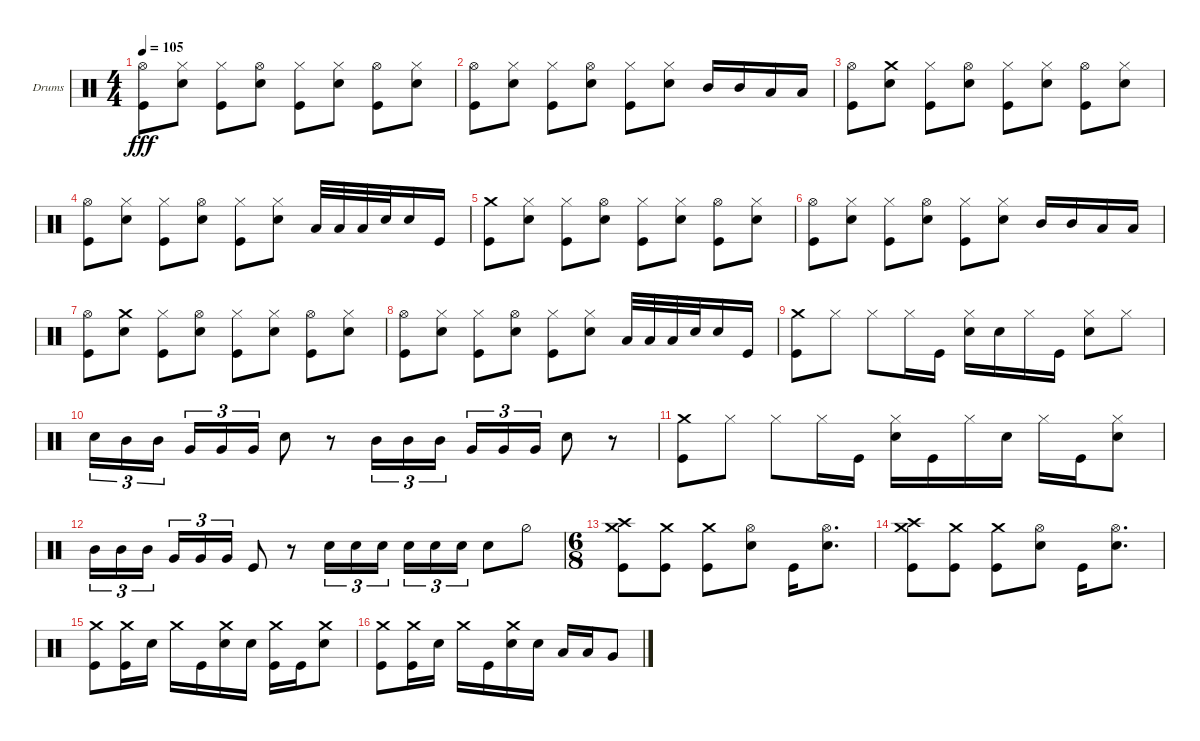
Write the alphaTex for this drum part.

\bracketExtendMode groupsimilarinstruments
\firstSystemTrackNameOrientation horizontal
\otherSystemsTrackNameOrientation horizontal
\track ("Andrew Forsman" "Drums") {instrument percussion}
\staff {score}
\articulation defaults
\ts (4 4)
\beaming (8 2 2 2 2)
\tempo 105
\clef neutral
\scale
0.474178
\ks c
("Kick (hit)" "Hi-Hat (open)").8{dy fff} ("Snare (hit) 2" "Hi-Hat (closed)").8 ("Kick (hit)" "Hi-Hat (closed)").8 ("Snare (hit) 2" "Hi-Hat (open)").8 ("Kick (hit)" "Hi-Hat (closed)").8 ("Snare (hit) 2" "Hi-Hat (closed)").8 ("Kick (hit)" "Hi-Hat (open)").8 ("Snare (hit) 2" "Hi-Hat (closed)").8 |
\scale
0.333333 ("Kick (hit)" "Hi-Hat (open)").8 ("Snare (hit) 2" "Hi-Hat (closed)").8 ("Kick (hit)" "Hi-Hat (closed)").8 ("Snare (hit) 2" "Hi-Hat (open)").8 ("Kick (hit)" "Hi-Hat (closed)").8 ("Snare (hit) 2" "Hi-Hat (closed)").8 "Mid Tom (hit)".16 "Mid Tom (hit)".16 "Low Tom (hit)".16 "Low Tom (hit)".16 |
\scale
0.333333 ("Kick (hit)" "Hi-Hat (open)").8 ("Snare (hit) 2" "Crash medium (hit)").8 ("Kick (hit)" "Hi-Hat (closed)").8 ("Snare (hit) 2" "Hi-Hat (open)").8 ("Kick (hit)" "Hi-Hat (closed)").8 ("Snare (hit) 2" "Hi-Hat (closed)").8 ("Kick (hit)" "Hi-Hat (open)").8 ("Snare (hit) 2" "Hi-Hat (closed)").8 |
\scale
0.333333 ("Kick (hit)" "Hi-Hat (open)").8 ("Snare (hit) 2" "Hi-Hat (closed)").8 ("Kick (hit)" "Hi-Hat (closed)").8 ("Snare (hit) 2" "Hi-Hat (open)").8 ("Kick (hit)" "Hi-Hat (closed)").8 ("Snare (hit) 2" "Hi-Hat (closed)").8 "Low Tom (hit)".32 "Low Tom (hit)".32 "Low Tom (hit)".32 "Snare (hit) 2".32 "Snare (hit) 2".16 "Kick (hit)".16 |
\scale
0.333333 ("Kick (hit)" "Crash medium (hit)").8 ("Snare (hit) 2" "Hi-Hat (closed)").8 ("Kick (hit)" "Hi-Hat (closed)").8 ("Snare (hit) 2" "Hi-Hat (open)").8 ("Kick (hit)" "Hi-Hat (closed)").8 ("Snare (hit) 2" "Hi-Hat (closed)").8 ("Kick (hit)" "Hi-Hat (open)").8 ("Snare (hit) 2" "Hi-Hat (closed)").8 |
\scale
0.333333 ("Kick (hit)" "Hi-Hat (open)").8 ("Snare (hit) 2" "Hi-Hat (closed)").8 ("Kick (hit)" "Hi-Hat (closed)").8 ("Snare (hit) 2" "Hi-Hat (open)").8 ("Kick (hit)" "Hi-Hat (closed)").8 ("Snare (hit) 2" "Hi-Hat (closed)").8 "Mid Tom (hit)".16 "Mid Tom (hit)".16 "Low Tom (hit)".16 "Low Tom (hit)".16 |
\scale
0.333333 ("Kick (hit)" "Hi-Hat (open)").8 ("Snare (hit) 2" "Crash medium (hit)").8 ("Kick (hit)" "Hi-Hat (closed)").8 ("Snare (hit) 2" "Hi-Hat (open)").8 ("Kick (hit)" "Hi-Hat (closed)").8 ("Snare (hit) 2" "Hi-Hat (closed)").8 ("Kick (hit)" "Hi-Hat (open)").8 ("Snare (hit) 2" "Hi-Hat (closed)").8 |
\scale
0.333333 ("Kick (hit)" "Hi-Hat (open)").8 ("Snare (hit) 2" "Hi-Hat (closed)").8 ("Kick (hit)" "Hi-Hat (closed)").8 ("Snare (hit) 2" "Hi-Hat (open)").8 ("Kick (hit)" "Hi-Hat (closed)").8 ("Snare (hit) 2" "Hi-Hat (closed)").8 "Low Tom (hit)".32 "Low Tom (hit)".32 "Low Tom (hit)".32 "Snare (hit) 2".32 "Snare (hit) 2".16 "Kick (hit)".16 |
\scale
0.333333 ("Kick (hit)" "Crash medium (hit)").8 "Hi-Hat (closed)".8 "Hi-Hat (closed)".8 "Hi-Hat (closed)".16 "Kick (hit)".16 ("Snare (hit) 2" "Hi-Hat (closed)").16 "Snare (hit) 2".16 "Hi-Hat (closed)".16 "Kick (hit)".16 ("Snare (hit) 2" "Hi-Hat (closed)").8 "Hi-Hat (closed)".8 |
\scale
0.333333 "Snare (hit) 2".16{tu (3 2)} "Mid Tom (hit)".16{tu (3 2)} "Mid Tom (hit)".16{tu (3 2)} "Very Low Tom (hit)".16{tu (3 2)} "Very Low Tom (hit)".16{tu (3 2)} "Very Low Tom (hit)".16{tu (3 2)} "Snare (hit) 2".8 r.8 "Mid Tom (hit)".16{tu (3 2)} "Mid Tom (hit)".16{tu (3 2)} "Mid Tom (hit)".16{tu (3 2)} "Very Low Tom (hit)".16{tu (3 2)} "Very Low Tom (hit)".16{tu (3 2)} "Very Low Tom (hit)".16{tu (3 2)} "Snare (hit) 2".8 r.8 |
\scale
0.262911 ("Kick (hit)" "Crash medium (hit)").8 "Hi-Hat (closed)".8 "Hi-Hat (closed)".8 "Hi-Hat (closed)".16 "Kick (hit)".16 ("Snare (hit) 2" "Hi-Hat (closed)").16 "Kick (hit)".16 "Hi-Hat (closed)".16 "Snare (hit) 2".16 "Hi-Hat (closed)".16 "Kick (hit)".16 ("Snare (hit) 2" "Hi-Hat (closed)").8 |
\scale
0.262911 "Mid Tom (hit)".16{tu (3 2)} "Mid Tom (hit)".16{tu (3 2)} "Mid Tom (hit)".16{tu (3 2)} "Very Low Tom (hit)".16{tu (3 2)} "Very Low Tom (hit)".16{tu (3 2)} "Very Low Tom (hit)".16{tu (3 2)} "Kick (hit)".8 r.8 "Snare (hit) 2".16{tu (3 2)} "Snare (hit) 2".16{tu (3 2)} "Snare (hit) 2".16{tu (3 2)} "Snare (hit) 2".16{tu (3 2)} "Snare (hit) 2".16{tu (3 2)} "Snare (hit) 2".16{tu (3 2)} "Snare (hit) 2".8 "Hi-Hat (half)".8 |
\ts (6 8)
\beaming (8 2 2 2 2)
\scale
0.474178 ("Kick (hit)" "Crash medium (hit)" "Crash high (hit)").8 ("Kick (hit)" "Crash medium (hit)").8 ("Kick (hit)" "Crash medium (hit)").8 ("Snare (hit) 2" "Hi-Hat (open)").8 "Kick (hit)".16 ("Snare (hit) 2" "Hi-Hat (open)").8{d} |
\scale
0.333333 ("Kick (hit)" "Crash medium (hit)" "Crash high (hit)").8 ("Kick (hit)" "Crash medium (hit)").8 ("Kick (hit)" "Crash medium (hit)").8 ("Snare (hit) 2" "Hi-Hat (open)").8 "Kick (hit)".16 ("Snare (hit) 2" "Hi-Hat (open)").8{d} |
\scale
0.333333 ("Kick (hit)" "Crash medium (hit)").8 ("Kick (hit)" "Crash medium (hit)").16 "Snare (hit) 2".16 "Crash medium (hit)".16 "Kick (hit)".16 ("Snare (hit) 2" "Crash medium (hit)").16 "Snare (hit) 2".16 ("Kick (hit)" "Crash medium (hit)").16 "Kick (hit)".16 ("Snare (hit) 2" "Crash medium (hit)").8 |
\scale
0.333333 ("Kick (hit)" "Crash medium (hit)").8 ("Kick (hit)" "Crash medium (hit)").16 "Snare (hit) 2".16 "Crash medium (hit)".16 "Kick (hit)".16 ("Snare (hit) 2" "Crash medium (hit)").16 "Snare (hit) 2".16 "Low Tom (hit)".16 "Low Tom (hit)".16 "Very Low Tom (hit)".8
